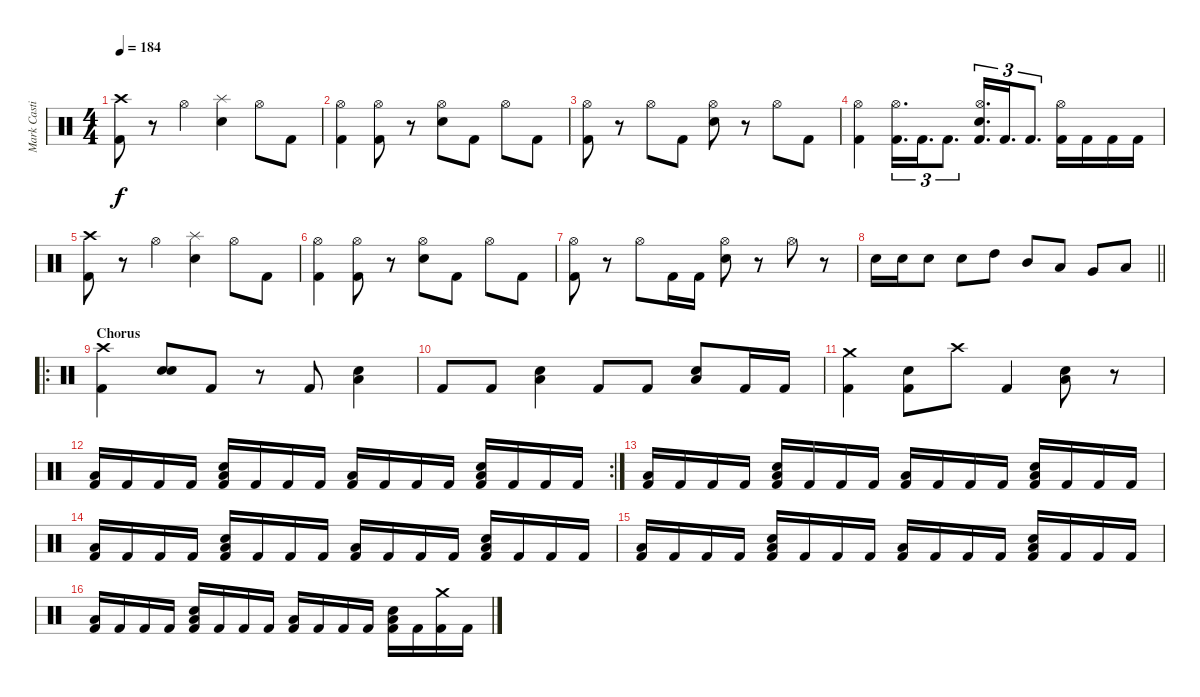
\track ("Mark Castillo" "Mark Casti") {instrument percussion}
\staff {score}
\articulation defaults
\ts (4 4)
\tempo 184
\clef neutral
\ks c
("Crash high (hit)" "Kick (hit) 2").8{dy f} r.8 "Hi-Hat (open)".4 ("Splash (hit)" "Electric Snare (hit)").4 "Hi-Hat (open)".8 "Kick (hit) 2".8 |
("Hi-Hat (open)" "Kick (hit) 2").4 ("Hi-Hat (open)" "Kick (hit) 2").8 r.8 ("Hi-Hat (open)" "Electric Snare (hit)").8 "Kick (hit) 2".8 "Hi-Hat (open)".8 "Kick (hit) 2".8 |
("Hi-Hat (open)" "Kick (hit) 2").8 r.8 "Hi-Hat (open)".8 "Kick (hit) 2".8 ("Hi-Hat (open)" "Electric Snare (hit)").8 r.8 "Hi-Hat (open)".8 "Kick (hit) 2".8 |
("Hi-Hat (open)" "Kick (hit) 2").4 ("Hi-Hat (open)" "Kick (hit) 2").16{d tu (3 2)} "Kick (hit) 2".16{d tu (3 2)} "Kick (hit) 2".8{d tu (3 2)} ("Hi-Hat (open)" "Electric Snare (hit)" "Kick (hit) 2").16{d tu (3 2)} "Kick (hit) 2".16{d tu (3 2)} "Kick (hit) 2".8{d tu (3 2)} ("Hi-Hat (open)" "Kick (hit) 2").16 "Kick (hit) 2".16 "Kick (hit) 2".16 "Kick (hit) 2".16 |
("Crash high (hit)" "Kick (hit) 2").8 r.8 "Hi-Hat (open)".4 ("Splash (hit)" "Electric Snare (hit)").4 "Hi-Hat (open)".8 "Kick (hit) 2".8 |
("Hi-Hat (open)" "Kick (hit) 2").4 ("Hi-Hat (open)" "Kick (hit) 2").8 r.8 ("Hi-Hat (open)" "Electric Snare (hit)").8 "Kick (hit) 2".8 "Hi-Hat (open)".8 "Kick (hit) 2".8 |
("Hi-Hat (open)" "Kick (hit) 2").8 r.8 "Hi-Hat (open)".8 "Kick (hit) 2".16 "Kick (hit) 2".16 ("Hi-Hat (open)" "Electric Snare (hit)").8 r.8 "Hi-Hat (open)".8 r.8 |
\barLineRight lightlight "Electric Snare (hit)".16 "Electric Snare (hit)".16 "Electric Snare (hit)".8 "Electric Snare (hit)".8 "High Tom (hit)".8 "Mid Tom (hit)".8 "Low Tom (hit)".8 "Very Low Tom (hit)".8 "Low Floor Tom (hit)".8
|
\ro
\section ("" "Chorus")
("Crash high (hit)" "Kick (hit) 2").4 ("Electric Snare (hit)" "Electric Snare (hit)").8 "Kick (hit) 2".8 r.8 "Kick (hit) 2".8 ("Electric Snare (hit)" "Low Floor Tom (hit)").4 |
"Kick (hit) 2".8 "Kick (hit) 2".8 ("Electric Snare (hit)" "Low Floor Tom (hit)").4 "Kick (hit) 2".8 "Kick (hit) 2".8 ("Electric Snare (hit)" "Low Floor Tom (hit)").8 "Kick (hit) 2".16 "Kick (hit) 2".16 |
("Crash medium (hit)" "Kick (hit) 2").4 ("Electric Snare (hit)" "Kick (hit) 2").8 "Crash high (hit)".8 "Kick (hit) 2".4 ("Electric Snare (hit)" "Low Floor Tom (hit)").8 r.8 |
\rc 2
("Low Floor Tom (hit)" "Kick (hit) 2").16 "Kick (hit) 2".16 "Kick (hit) 2".16 "Kick (hit) 2".16 ("Electric Snare (hit)" "Low Floor Tom (hit)" "Kick (hit) 2").16 "Kick (hit) 2".16 "Kick (hit) 2".16 "Kick (hit) 2".16 ("Low Floor Tom (hit)" "Kick (hit) 2").16 "Kick (hit) 2".16 "Kick (hit) 2".16 "Kick (hit) 2".16 ("Electric Snare (hit)" "Low Floor Tom (hit)" "Kick (hit) 2").16 "Kick (hit) 2".16 "Kick (hit) 2".16 "Kick (hit) 2".16 |
("Low Floor Tom (hit)" "Kick (hit) 2").16 "Kick (hit) 2".16 "Kick (hit) 2".16 "Kick (hit) 2".16 ("Electric Snare (hit)" "Low Floor Tom (hit)" "Kick (hit) 2").16 "Kick (hit) 2".16 "Kick (hit) 2".16 "Kick (hit) 2".16 ("Low Floor Tom (hit)" "Kick (hit) 2").16 "Kick (hit) 2".16 "Kick (hit) 2".16 "Kick (hit) 2".16 ("Electric Snare (hit)" "Low Floor Tom (hit)" "Kick (hit) 2").16 "Kick (hit) 2".16 "Kick (hit) 2".16 "Kick (hit) 2".16 |
("Low Floor Tom (hit)" "Kick (hit) 2").16 "Kick (hit) 2".16 "Kick (hit) 2".16 "Kick (hit) 2".16 ("Electric Snare (hit)" "Low Floor Tom (hit)" "Kick (hit) 2").16 "Kick (hit) 2".16 "Kick (hit) 2".16 "Kick (hit) 2".16 ("Low Floor Tom (hit)" "Kick (hit) 2").16 "Kick (hit) 2".16 "Kick (hit) 2".16 "Kick (hit) 2".16 ("Electric Snare (hit)" "Low Floor Tom (hit)" "Kick (hit) 2").16 "Kick (hit) 2".16 "Kick (hit) 2".16 "Kick (hit) 2".16 |
("Low Floor Tom (hit)" "Kick (hit) 2").16 "Kick (hit) 2".16 "Kick (hit) 2".16 "Kick (hit) 2".16 ("Electric Snare (hit)" "Low Floor Tom (hit)" "Kick (hit) 2").16 "Kick (hit) 2".16 "Kick (hit) 2".16 "Kick (hit) 2".16 ("Low Floor Tom (hit)" "Kick (hit) 2").16 "Kick (hit) 2".16 "Kick (hit) 2".16 "Kick (hit) 2".16 ("Electric Snare (hit)" "Low Floor Tom (hit)" "Kick (hit) 2").16 "Kick (hit) 2".16 "Kick (hit) 2".16 "Kick (hit) 2".16 |
("Low Floor Tom (hit)" "Kick (hit) 2").16 "Kick (hit) 2".16 "Kick (hit) 2".16 "Kick (hit) 2".16 ("Electric Snare (hit)" "Low Floor Tom (hit)" "Kick (hit) 2").16 "Kick (hit) 2".16 "Kick (hit) 2".16 "Kick (hit) 2".16 ("Low Floor Tom (hit)" "Kick (hit) 2").16 "Kick (hit) 2".16 "Kick (hit) 2".16 "Kick (hit) 2".16 ("Electric Snare (hit)" "Low Floor Tom (hit)" "Kick (hit) 2").16 "Kick (hit) 2".16 ("Crash medium (hit)" "Kick (hit) 2").16 "Kick (hit) 2".16
